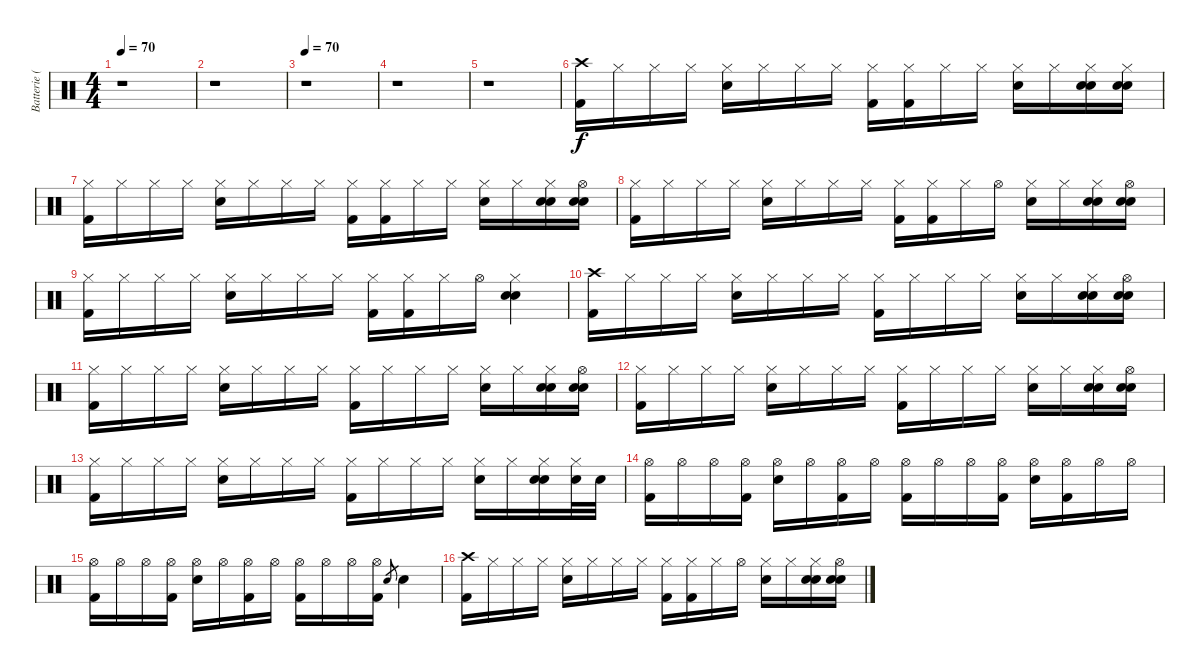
\track ("Batterie (Racci \"Sketchy\" Shay)" "Batterie (") {instrument percussion}
\staff {score}
\articulation defaults
\ts (4 4)
\tempo 70
\tempo 90
\tempo 70
\clef neutral
\ks c
r.1{dy f} |
r.1 |
\tempo 70
r.1 |
r.1 |
r.1 |
("Crash high (hit)" "Kick (hit) 2").16 "Hi-Hat (closed)".16 "Hi-Hat (closed)".16 "Hi-Hat (closed)".16 ("Hi-Hat (closed)" "Electric Snare (hit)").16 "Hi-Hat (closed)".16 "Hi-Hat (closed)".16 "Hi-Hat (closed)".16 ("Hi-Hat (closed)" "Kick (hit) 2").16 ("Hi-Hat (closed)" "Kick (hit) 2").16 "Hi-Hat (closed)".16 "Hi-Hat (closed)".16 ("Hi-Hat (closed)" "Electric Snare (hit)").16 "Hi-Hat (closed)".16 ("Hi-Hat (closed)" "Hand Clap (hit)" "Electric Snare (hit)").16 ("Hi-Hat (closed)" "Hand Clap (hit)" "Electric Snare (hit)").16 |
("Hi-Hat (closed)" "Kick (hit) 2").16 "Hi-Hat (closed)".16 "Hi-Hat (closed)".16 "Hi-Hat (closed)".16 ("Hi-Hat (closed)" "Electric Snare (hit)").16 "Hi-Hat (closed)".16 "Hi-Hat (closed)".16 "Hi-Hat (closed)".16 ("Hi-Hat (closed)" "Kick (hit) 2").16 ("Hi-Hat (closed)" "Kick (hit) 2").16 "Hi-Hat (closed)".16 "Hi-Hat (closed)".16 ("Hi-Hat (closed)" "Electric Snare (hit)").16 "Hi-Hat (closed)".16 ("Hi-Hat (closed)" "Hand Clap (hit)" "Electric Snare (hit)").16 ("Hi-Hat (open)" "Hand Clap (hit)" "Electric Snare (hit)").16 |
("Hi-Hat (closed)" "Kick (hit) 2").16 "Hi-Hat (closed)".16 "Hi-Hat (closed)".16 "Hi-Hat (closed)".16 ("Hi-Hat (closed)" "Electric Snare (hit)").16 "Hi-Hat (closed)".16 "Hi-Hat (closed)".16 "Hi-Hat (closed)".16 ("Hi-Hat (closed)" "Kick (hit) 2").16 ("Hi-Hat (closed)" "Kick (hit) 2").16 "Hi-Hat (closed)".16 "Hi-Hat (open)".16 ("Hi-Hat (closed)" "Electric Snare (hit)").16 "Hi-Hat (closed)".16 ("Hi-Hat (closed)" "Hand Clap (hit)" "Electric Snare (hit)").16 ("Hi-Hat (open)" "Hand Clap (hit)" "Electric Snare (hit)").16 |
("Hi-Hat (closed)" "Kick (hit) 2").16 "Hi-Hat (closed)".16 "Hi-Hat (closed)".16 "Hi-Hat (closed)".16 ("Hi-Hat (closed)" "Electric Snare (hit)").16 "Hi-Hat (closed)".16 "Hi-Hat (closed)".16 "Hi-Hat (closed)".16 ("Hi-Hat (closed)" "Kick (hit) 2").16 ("Hi-Hat (closed)" "Kick (hit) 2").16 "Hi-Hat (closed)".16 "Hi-Hat (open)".16 ("Hi-Hat (closed)" "Hand Clap (hit)" "Electric Snare (hit)").4 |
("Crash high (hit)" "Kick (hit) 2").16 "Hi-Hat (closed)".16 "Hi-Hat (closed)".16 "Hi-Hat (closed)".16 ("Hi-Hat (closed)" "Electric Snare (hit)").16 "Hi-Hat (closed)".16 "Hi-Hat (closed)".16 "Hi-Hat (closed)".16 ("Hi-Hat (closed)" "Kick (hit) 2").16 "Hi-Hat (closed)".16 "Hi-Hat (closed)".16 "Hi-Hat (closed)".16 ("Hi-Hat (closed)" "Electric Snare (hit)").16 "Hi-Hat (closed)".16 ("Hi-Hat (closed)" "Hand Clap (hit)" "Electric Snare (hit)").16 ("Hi-Hat (open)" "Hand Clap (hit)" "Electric Snare (hit)").16 |
("Hi-Hat (closed)" "Kick (hit) 2").16 "Hi-Hat (closed)".16 "Hi-Hat (closed)".16 "Hi-Hat (closed)".16 ("Hi-Hat (closed)" "Electric Snare (hit)").16 "Hi-Hat (closed)".16 "Hi-Hat (closed)".16 "Hi-Hat (closed)".16 ("Hi-Hat (closed)" "Kick (hit) 2").16 "Hi-Hat (closed)".16 "Hi-Hat (closed)".16 "Hi-Hat (closed)".16 ("Hi-Hat (closed)" "Electric Snare (hit)").16 "Hi-Hat (closed)".16 ("Hi-Hat (closed)" "Hand Clap (hit)" "Electric Snare (hit)").16 ("Hi-Hat (open)" "Hand Clap (hit)" "Electric Snare (hit)").16 |
("Hi-Hat (closed)" "Kick (hit) 2").16 "Hi-Hat (closed)".16 "Hi-Hat (closed)".16 "Hi-Hat (closed)".16 ("Hi-Hat (closed)" "Electric Snare (hit)").16 "Hi-Hat (closed)".16 "Hi-Hat (closed)".16 "Hi-Hat (closed)".16 ("Hi-Hat (closed)" "Kick (hit) 2").16 "Hi-Hat (closed)".16 "Hi-Hat (closed)".16 "Hi-Hat (closed)".16 ("Hi-Hat (closed)" "Electric Snare (hit)").16 "Hi-Hat (closed)".16 ("Hi-Hat (closed)" "Hand Clap (hit)" "Electric Snare (hit)").16 ("Hi-Hat (open)" "Hand Clap (hit)" "Electric Snare (hit)").16 |
("Hi-Hat (closed)" "Kick (hit) 2").16 "Hi-Hat (closed)".16 "Hi-Hat (closed)".16 "Hi-Hat (closed)".16 ("Hi-Hat (closed)" "Electric Snare (hit)").16 "Hi-Hat (closed)".16 "Hi-Hat (closed)".16 "Hi-Hat (closed)".16 ("Hi-Hat (closed)" "Kick (hit) 2").16 "Hi-Hat (closed)".16 "Hi-Hat (closed)".16 "Hi-Hat (closed)".16 ("Hi-Hat (closed)" "Electric Snare (hit)").16 "Hi-Hat (closed)".16 ("Hi-Hat (closed)" "Hand Clap (hit)" "Electric Snare (hit)").16 ("Hi-Hat (closed)" "Electric Snare (hit)").32 "Electric Snare (hit)".32 |
("Hi-Hat (open)" "Kick (hit) 2").16 "Hi-Hat (open)".16 "Hi-Hat (open)".16 ("Hi-Hat (open)" "Kick (hit) 2").16 ("Hi-Hat (open)" "Electric Snare (hit)").16 "Hi-Hat (open)".16 ("Hi-Hat (open)" "Kick (hit) 2").16 "Hi-Hat (open)".16 ("Hi-Hat (open)" "Kick (hit) 2").16 "Hi-Hat (open)".16 "Hi-Hat (open)".16 ("Hi-Hat (open)" "Kick (hit) 2").16 ("Hi-Hat (open)" "Electric Snare (hit)").16 ("Hi-Hat (open)" "Kick (hit) 2").16 "Hi-Hat (open)".16 "Hi-Hat (open)".16 |
("Hi-Hat (open)" "Kick (hit) 2").16 "Hi-Hat (open)".16 "Hi-Hat (open)".16 ("Hi-Hat (open)" "Kick (hit) 2").16 ("Hi-Hat (open)" "Electric Snare (hit)").16 "Hi-Hat (open)".16 ("Hi-Hat (open)" "Kick (hit) 2").16 "Hi-Hat (open)".16 ("Hi-Hat (open)" "Kick (hit) 2").16 "Hi-Hat (open)".16 "Hi-Hat (open)".16 ("Hi-Hat (open)" "Kick (hit) 2").16 "Electric Snare (hit)".8{gr} "Electric Snare (hit)".4 |
("Crash high (hit)" "Kick (hit) 2").16 "Hi-Hat (closed)".16 "Hi-Hat (closed)".16 "Hi-Hat (closed)".16 ("Hi-Hat (closed)" "Electric Snare (hit)").16 "Hi-Hat (closed)".16 "Hi-Hat (closed)".16 "Hi-Hat (closed)".16 ("Hi-Hat (closed)" "Kick (hit) 2").16 ("Hi-Hat (closed)" "Kick (hit) 2").16 "Hi-Hat (closed)".16 "Hi-Hat (open)".16 ("Hi-Hat (closed)" "Electric Snare (hit)").16 "Hi-Hat (closed)".16 ("Hi-Hat (closed)" "Hand Clap (hit)" "Electric Snare (hit)").16 ("Hi-Hat (open)" "Hand Clap (hit)" "Electric Snare (hit)").16
